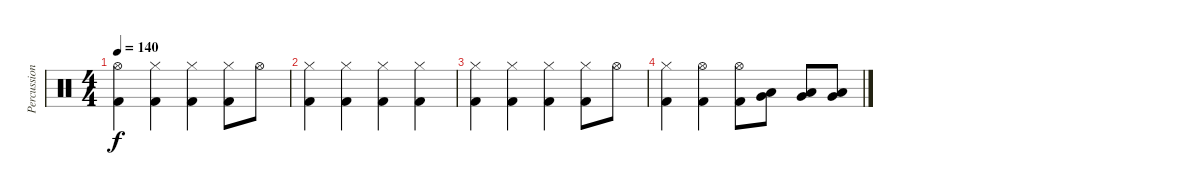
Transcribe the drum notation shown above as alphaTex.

\track ("Percussions" "Percussion") {instrument percussion}
\staff {score}
\articulation defaults
\ts (4 4)
\tempo 140
\clef neutral
\ks c
("Hi-Hat (open)" "Kick (hit) 2").4{dy f} ("Hi-Hat (closed)" "Kick (hit) 2").4 ("Hi-Hat (closed)" "Kick (hit) 2").4 ("Hi-Hat (closed)" "Kick (hit) 2").8 "Hi-Hat (open)".8 |
("Hi-Hat (closed)" "Kick (hit) 2").4 ("Hi-Hat (closed)" "Kick (hit) 2").4 ("Hi-Hat (closed)" "Kick (hit) 2").4 ("Hi-Hat (closed)" "Kick (hit) 2").4 |
("Hi-Hat (closed)" "Kick (hit) 2").4 ("Hi-Hat (closed)" "Kick (hit) 2").4 ("Hi-Hat (closed)" "Kick (hit) 2").4 ("Hi-Hat (closed)" "Kick (hit) 2").8 "Hi-Hat (open)".8 |
("Hi-Hat (closed)" "Kick (hit) 2").4 ("Hi-Hat (open)" "Kick (hit) 2").4 ("Hi-Hat (open)" "Kick (hit) 2").8 ("Low Tom (hit)" "Very Low Tom (hit)").8 ("Low Tom (hit)" "Very Low Tom (hit)").8 ("Low Tom (hit)" "Very Low Tom (hit)").8
